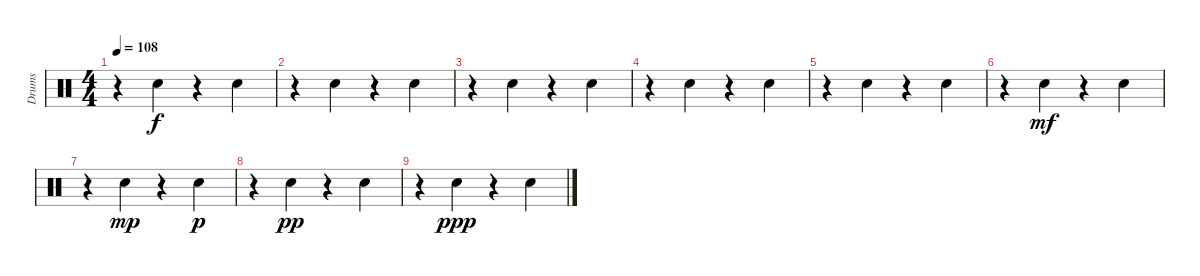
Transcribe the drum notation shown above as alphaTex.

\track ("Drums" "Drums") {instrument percussion}
\staff {score}
\articulation defaults
\ts (4 4)
\tempo 108
\clef neutral
\ks c
r.4{dy f} "Snare (hit) 2".4 r.4 "Snare (hit) 2".4 |
r.4 "Snare (hit) 2".4 r.4 "Snare (hit) 2".4 |
r.4 "Snare (hit) 2".4 r.4 "Snare (hit) 2".4 |
r.4 "Snare (hit) 2".4 r.4 "Snare (hit) 2".4 |
r.4 "Snare (hit) 2".4 r.4 "Snare (hit) 2".4 |
r.4 "Snare (hit) 2".4{dy mf} r.4 "Snare (hit) 2".4 |
r.4 "Snare (hit) 2".4{dy mp} r.4 "Snare (hit) 2".4{dy p} |
r.4 "Snare (hit) 2".4{dy pp} r.4 "Snare (hit) 2".4 |
r.4 "Snare (hit) 2".4{dy ppp} r.4 "Snare (hit) 2".4
